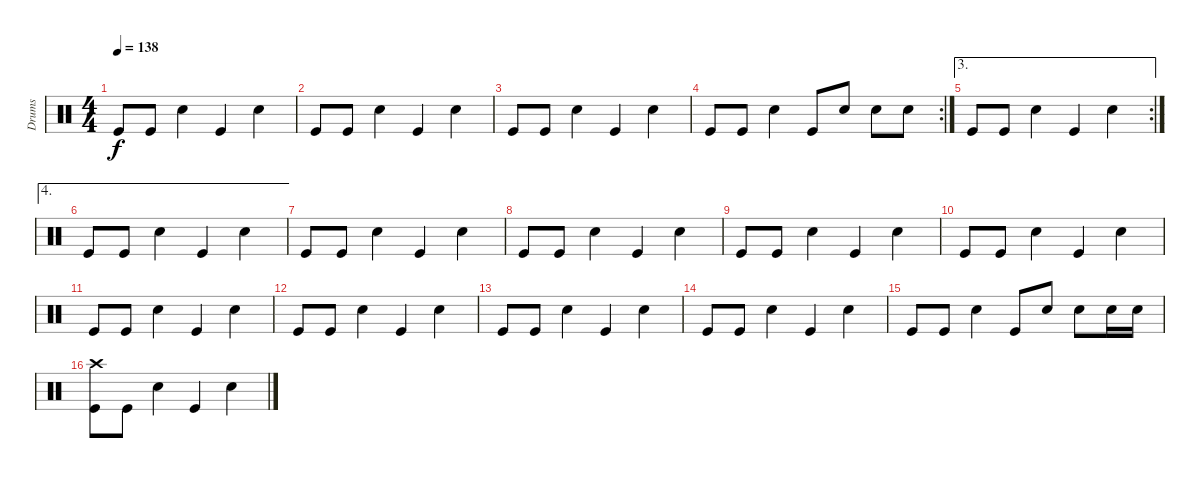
\track ("Drums" "Drums") {instrument percussion}
\staff {score}
\articulation defaults
\ts (4 4)
\tempo 138
\clef neutral
\ks c "Kick (hit)".8{dy f} "Kick (hit)".8 "Snare (hit) 2".4 "Kick (hit)".4 "Snare (hit) 2".4
|
"Kick (hit)".8 "Kick (hit)".8 "Snare (hit) 2".4 "Kick (hit)".4 "Snare (hit) 2".4 |
"Kick (hit)".8 "Kick (hit)".8 "Snare (hit) 2".4 "Kick (hit)".4 "Snare (hit) 2".4 |
\rc 2 "Kick (hit)".8 "Kick (hit)".8 "Snare (hit) 2".4 "Kick (hit)".8 "Snare (hit) 2".8 "Snare (hit) 2".8 "Snare (hit) 2".8
|
\ae 3
\rc 2 "Kick (hit)".8 "Kick (hit)".8 "Snare (hit) 2".4 "Kick (hit)".4 "Snare (hit) 2".4
|
\ae 4 "Kick (hit)".8 "Kick (hit)".8 "Snare (hit) 2".4 "Kick (hit)".4 "Snare (hit) 2".4
|
"Kick (hit)".8 "Kick (hit)".8 "Snare (hit) 2".4 "Kick (hit)".4 "Snare (hit) 2".4 |
"Kick (hit)".8 "Kick (hit)".8 "Snare (hit) 2".4 "Kick (hit)".4 "Snare (hit) 2".4 |
"Kick (hit)".8 "Kick (hit)".8 "Snare (hit) 2".4 "Kick (hit)".4 "Snare (hit) 2".4 |
"Kick (hit)".8 "Kick (hit)".8 "Snare (hit) 2".4 "Kick (hit)".4 "Snare (hit) 2".4 |
"Kick (hit)".8 "Kick (hit)".8 "Snare (hit) 2".4 "Kick (hit)".4 "Snare (hit) 2".4 |
"Kick (hit)".8 "Kick (hit)".8 "Snare (hit) 2".4 "Kick (hit)".4 "Snare (hit) 2".4 |
"Kick (hit)".8 "Kick (hit)".8 "Snare (hit) 2".4 "Kick (hit)".4 "Snare (hit) 2".4 |
"Kick (hit)".8 "Kick (hit)".8 "Snare (hit) 2".4 "Kick (hit)".4 "Snare (hit) 2".4 |
"Kick (hit)".8 "Kick (hit)".8 "Snare (hit) 2".4 "Kick (hit)".8 "Snare (hit) 2".8 "Snare (hit) 2".8 "Snare (hit) 2".16 "Snare (hit) 2".16 |
("Crash high (hit)" "Kick (hit)").8 "Kick (hit)".8 "Snare (hit) 2".4 "Kick (hit)".4 "Snare (hit) 2".4
